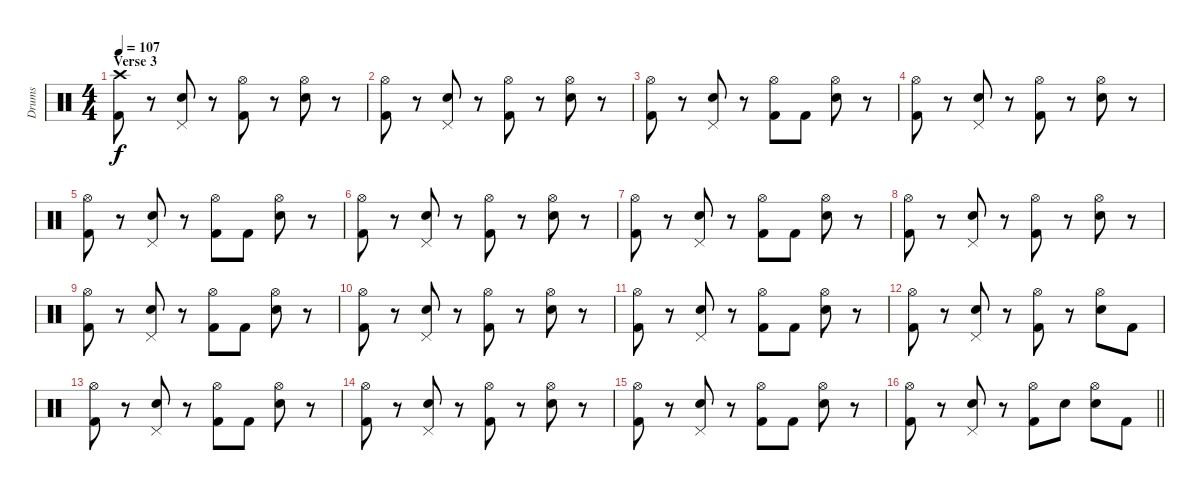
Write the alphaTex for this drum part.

\track ("Drums" "Drums") {instrument percussion}
\staff {score}
\articulation defaults
\ts (4 4)
\section ("" "Verse 3")
\tempo 107
\clef neutral
\ks c
("Crash high (hit)" "Kick (hit) 2").8{dy f} r.8 ("Pedal Hi-Hat (hit)" "Electric Snare (hit)").8 r.8 ("Hi-Hat (open)" "Kick (hit) 2").8 r.8 ("Hi-Hat (open)" "Electric Snare (hit)").8 r.8 |
("Hi-Hat (open)" "Kick (hit) 2").8 r.8 ("Pedal Hi-Hat (hit)" "Electric Snare (hit)").8 r.8 ("Hi-Hat (open)" "Kick (hit) 2").8 r.8 ("Hi-Hat (open)" "Electric Snare (hit)").8 r.8 |
("Hi-Hat (open)" "Kick (hit) 2").8 r.8 ("Pedal Hi-Hat (hit)" "Electric Snare (hit)").8 r.8 ("Hi-Hat (open)" "Kick (hit) 2").8 "Kick (hit) 2".8 ("Hi-Hat (open)" "Electric Snare (hit)").8 r.8 |
("Hi-Hat (open)" "Kick (hit) 2").8 r.8 ("Pedal Hi-Hat (hit)" "Electric Snare (hit)").8 r.8 ("Hi-Hat (open)" "Kick (hit) 2").8 r.8 ("Hi-Hat (open)" "Electric Snare (hit)").8 r.8 |
("Hi-Hat (open)" "Kick (hit) 2").8 r.8 ("Pedal Hi-Hat (hit)" "Electric Snare (hit)").8 r.8 ("Hi-Hat (open)" "Kick (hit) 2").8 "Kick (hit) 2".8 ("Hi-Hat (open)" "Electric Snare (hit)").8 r.8 |
("Hi-Hat (open)" "Kick (hit) 2").8 r.8 ("Pedal Hi-Hat (hit)" "Electric Snare (hit)").8 r.8 ("Hi-Hat (open)" "Kick (hit) 2").8 r.8 ("Hi-Hat (open)" "Electric Snare (hit)").8 r.8 |
("Hi-Hat (open)" "Kick (hit) 2").8 r.8 ("Pedal Hi-Hat (hit)" "Electric Snare (hit)").8 r.8 ("Hi-Hat (open)" "Kick (hit) 2").8 "Kick (hit) 2".8 ("Hi-Hat (open)" "Electric Snare (hit)").8 r.8 |
("Hi-Hat (open)" "Kick (hit) 2").8 r.8 ("Pedal Hi-Hat (hit)" "Electric Snare (hit)").8 r.8 ("Hi-Hat (open)" "Kick (hit) 2").8 r.8 ("Hi-Hat (open)" "Electric Snare (hit)").8 r.8 |
("Hi-Hat (open)" "Kick (hit) 2").8 r.8 ("Pedal Hi-Hat (hit)" "Electric Snare (hit)").8 r.8 ("Hi-Hat (open)" "Kick (hit) 2").8 "Kick (hit) 2".8 ("Hi-Hat (open)" "Electric Snare (hit)").8 r.8 |
("Hi-Hat (open)" "Kick (hit) 2").8 r.8 ("Pedal Hi-Hat (hit)" "Electric Snare (hit)").8 r.8 ("Hi-Hat (open)" "Kick (hit) 2").8 r.8 ("Hi-Hat (open)" "Electric Snare (hit)").8 r.8 |
("Hi-Hat (open)" "Kick (hit) 2").8 r.8 ("Pedal Hi-Hat (hit)" "Electric Snare (hit)").8 r.8 ("Hi-Hat (open)" "Kick (hit) 2").8 "Kick (hit) 2".8 ("Hi-Hat (open)" "Electric Snare (hit)").8 r.8 |
("Hi-Hat (open)" "Kick (hit) 2").8 r.8 ("Pedal Hi-Hat (hit)" "Electric Snare (hit)").8 r.8 ("Hi-Hat (open)" "Kick (hit) 2").8 r.8 ("Hi-Hat (open)" "Electric Snare (hit)").8 "Kick (hit) 2".8 |
("Hi-Hat (open)" "Kick (hit) 2").8 r.8 ("Pedal Hi-Hat (hit)" "Electric Snare (hit)").8 r.8 ("Hi-Hat (open)" "Kick (hit) 2").8 "Kick (hit) 2".8 ("Hi-Hat (open)" "Electric Snare (hit)").8 r.8 |
("Hi-Hat (open)" "Kick (hit) 2").8 r.8 ("Pedal Hi-Hat (hit)" "Electric Snare (hit)").8 r.8 ("Hi-Hat (open)" "Kick (hit) 2").8 r.8 ("Hi-Hat (open)" "Electric Snare (hit)").8 r.8 |
("Hi-Hat (open)" "Kick (hit) 2").8 r.8 ("Pedal Hi-Hat (hit)" "Electric Snare (hit)").8 r.8 ("Hi-Hat (open)" "Kick (hit) 2").8 "Kick (hit) 2".8 ("Hi-Hat (open)" "Electric Snare (hit)").8 r.8 |
\barLineRight lightlight
("Hi-Hat (open)" "Kick (hit) 2").8 r.8 ("Pedal Hi-Hat (hit)" "Electric Snare (hit)").8 r.8 ("Hi-Hat (open)" "Kick (hit) 2").8 "Electric Snare (hit)".8 ("Hi-Hat (open)" "Electric Snare (hit)").8 "Kick (hit) 2".8
